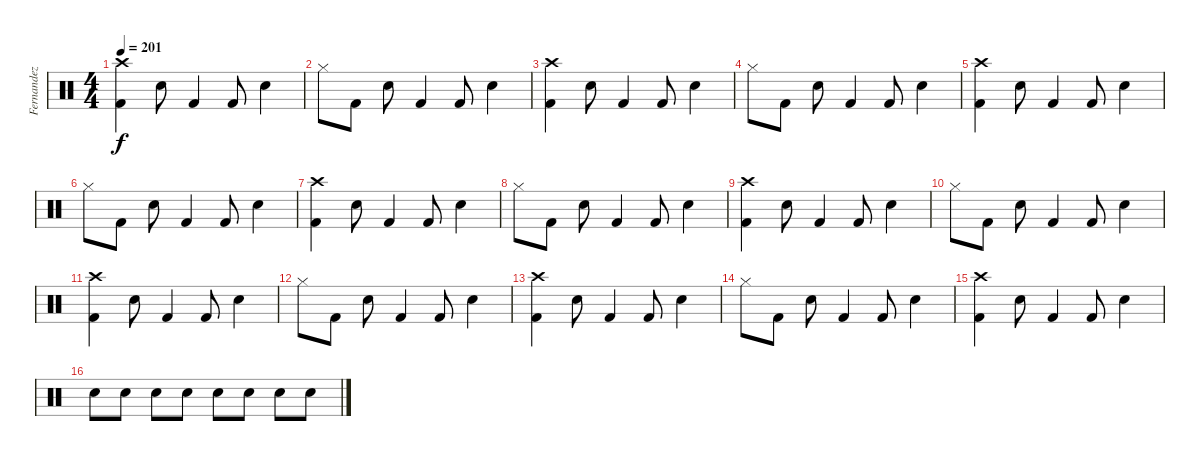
\track ("Fernandez" "Fernandez") {instrument percussion}
\staff {score}
\articulation defaults
\ts (4 4)
\tempo 201
\clef neutral
\ks c
("Crash high (hit)" "Kick (hit) 2").4{dy f} "Snare (hit) 2".8 "Kick (hit) 2".4 "Kick (hit) 2".8 "Snare (hit) 2".4 |
"Hi-Hat (closed)".8 "Kick (hit) 2".8 "Snare (hit) 2".8 "Kick (hit) 2".4 "Kick (hit) 2".8 "Snare (hit) 2".4 |
("Crash high (hit)" "Kick (hit) 2").4 "Snare (hit) 2".8 "Kick (hit) 2".4 "Kick (hit) 2".8 "Snare (hit) 2".4 |
"Hi-Hat (closed)".8 "Kick (hit) 2".8 "Snare (hit) 2".8 "Kick (hit) 2".4 "Kick (hit) 2".8 "Snare (hit) 2".4 |
("Crash high (hit)" "Kick (hit) 2").4 "Snare (hit) 2".8 "Kick (hit) 2".4 "Kick (hit) 2".8 "Snare (hit) 2".4 |
"Hi-Hat (closed)".8 "Kick (hit) 2".8 "Snare (hit) 2".8 "Kick (hit) 2".4 "Kick (hit) 2".8 "Snare (hit) 2".4 |
("Crash high (hit)" "Kick (hit) 2").4 "Snare (hit) 2".8 "Kick (hit) 2".4 "Kick (hit) 2".8 "Snare (hit) 2".4 |
"Hi-Hat (closed)".8 "Kick (hit) 2".8 "Snare (hit) 2".8 "Kick (hit) 2".4 "Kick (hit) 2".8 "Snare (hit) 2".4 |
("Crash high (hit)" "Kick (hit) 2").4 "Snare (hit) 2".8 "Kick (hit) 2".4 "Kick (hit) 2".8 "Snare (hit) 2".4 |
"Hi-Hat (closed)".8 "Kick (hit) 2".8 "Snare (hit) 2".8 "Kick (hit) 2".4 "Kick (hit) 2".8 "Snare (hit) 2".4 |
("Crash high (hit)" "Kick (hit) 2").4 "Snare (hit) 2".8 "Kick (hit) 2".4 "Kick (hit) 2".8 "Snare (hit) 2".4 |
"Hi-Hat (closed)".8 "Kick (hit) 2".8 "Snare (hit) 2".8 "Kick (hit) 2".4 "Kick (hit) 2".8 "Snare (hit) 2".4 |
("Crash high (hit)" "Kick (hit) 2").4 "Snare (hit) 2".8 "Kick (hit) 2".4 "Kick (hit) 2".8 "Snare (hit) 2".4 |
"Hi-Hat (closed)".8 "Kick (hit) 2".8 "Snare (hit) 2".8 "Kick (hit) 2".4 "Kick (hit) 2".8 "Snare (hit) 2".4 |
("Crash high (hit)" "Kick (hit) 2").4 "Snare (hit) 2".8 "Kick (hit) 2".4 "Kick (hit) 2".8 "Snare (hit) 2".4 |
"Snare (hit) 2".8 "Snare (hit) 2".8 "Snare (hit) 2".8 "Snare (hit) 2".8 "Snare (hit) 2".8 "Snare (hit) 2".8 "Snare (hit) 2".8 "Snare (hit) 2".8
